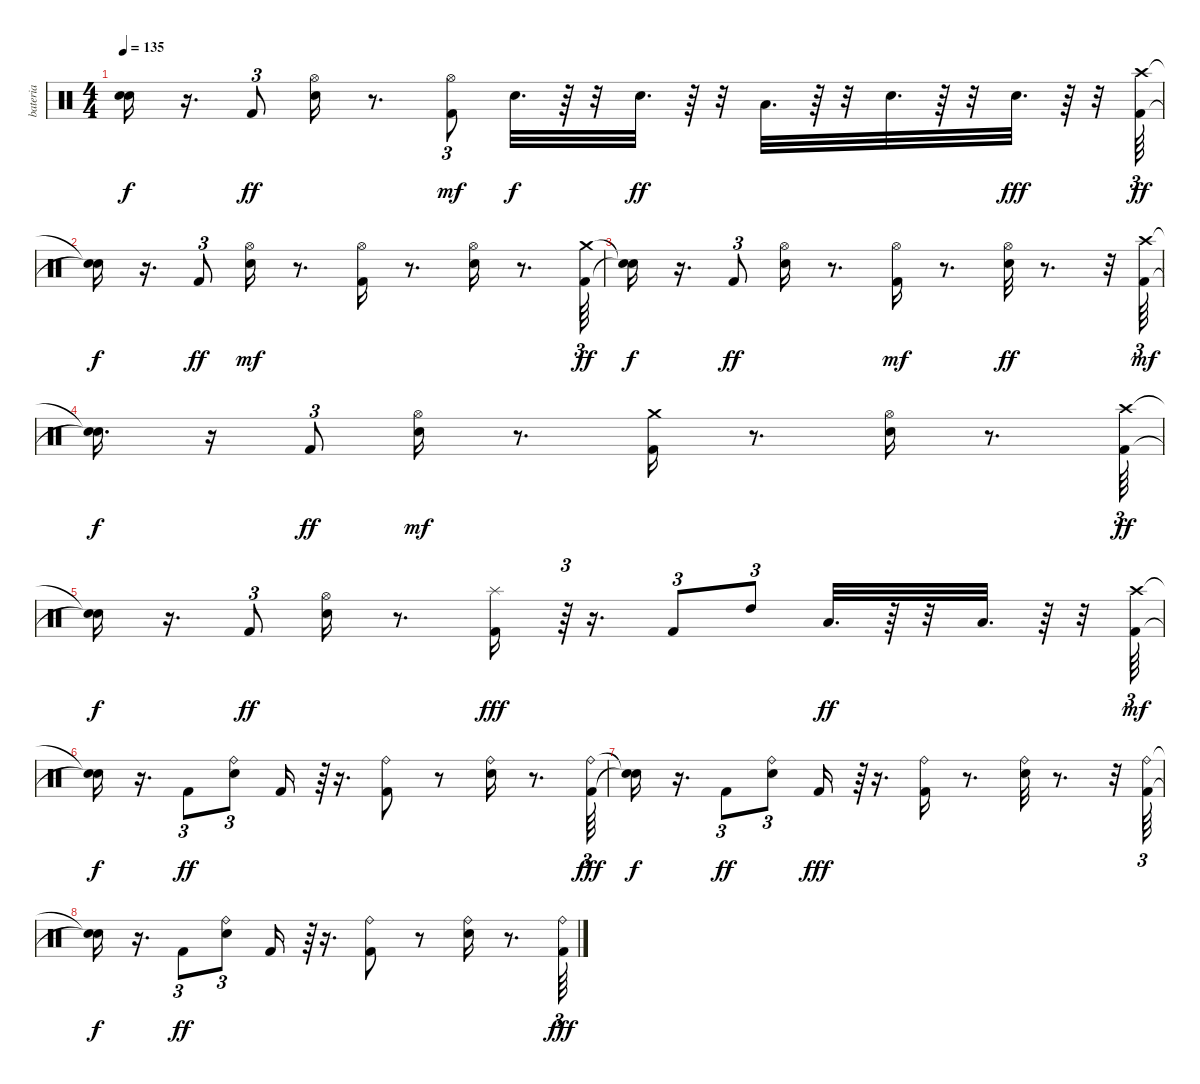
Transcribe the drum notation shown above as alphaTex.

\track ("bateria" "bateria") {instrument percussion}
\staff {score}
\articulation defaults
\ts (4 4)
\tempo 135
\clef neutral
\ks c
("Snare (hit)"{t} "Snare (hit)"{t}).16{dy f} r.16{d} "Kick (hit) 2".8{tu (3 2) dy ff} ("Electric Snare (hit)" "Hi-Hat (open)").16 r.8{d} ("Kick (hit) 2" "Hi-Hat (open)").8{tu (3 2) dy mf} "Electric Snare (hit)".32{d dy f} r.64 r.32 "Electric Snare (hit)".32{d dy ff} r.64 r.32 "Low Floor Tom (hit)".32{d} r.64 r.32 "Electric Snare (hit)".32{d} r.64 r.32 "Electric Snare (hit)".32{d dy fff} r.64 r.32 ("Kick (hit) 2" "Crash high (hit)").64{tu (3 2) dy ff} |
("Snare (hit)"{t} "Snare (hit)"{t}).16{dy f} r.16{d} "Kick (hit) 2".8{tu (3 2) dy ff} ("Electric Snare (hit)" "Hi-Hat (open)").16{dy mf} r.8{d} ("Kick (hit) 2" "Hi-Hat (open)").16 r.8{d} ("Electric Snare (hit)" "Hi-Hat (open)").16 r.8{d} ("Kick (hit) 2" "Crash medium (hit)").64{tu (3 2) dy ff} |
("Snare (hit)"{t} "Snare (hit)"{t}).16{dy f} r.16{d} "Kick (hit) 2".8{tu (3 2) dy ff} ("Electric Snare (hit)" "Hi-Hat (open)").16 r.8{d} ("Kick (hit) 2" "Hi-Hat (open)").16{dy mf} r.8{d} ("Electric Snare (hit)" "Hi-Hat (open)").32{dy ff} r.8{d} r.32 ("Kick (hit) 2" "Crash high (hit)").64{tu (3 2) dy mf} |
("Snare (hit)"{t} "Snare (hit)"{t}).16{d dy f} r.16 "Kick (hit) 2".8{tu (3 2) dy ff} ("Electric Snare (hit)" "Hi-Hat (open)").16{dy mf} r.8{d} ("Kick (hit) 2" "Crash medium (hit)").16 r.8{d} ("Electric Snare (hit)" "Hi-Hat (open)").16 r.8{d} ("Kick (hit) 2" "Crash high (hit)").64{tu (3 2) dy ff} |
("Snare (hit)"{t} "Snare (hit)"{t}).16{dy f} r.16{d} "Kick (hit) 2".8{tu (3 2) dy ff} ("Electric Snare (hit)" "Hi-Hat (open)").16 r.8{d} ("Kick (hit) 2" "Splash (hit)").16{dy fff} r.64{tu (3 2)} r.16{d} "Kick (hit) 2".8{tu (3 2)} "High Tom (hit)".8{tu (3 2)} "Low Tom (hit)".32{d dy ff} r.64 r.32 "Low Floor Tom (hit)".32{d} r.64 r.32 ("Kick (hit) 2" "Crash high (hit)").64{tu (3 2) dy mf} |
("Snare (hit)"{t} "Snare (hit)"{t}).16{dy f} r.16{d} "Kick (hit) 2".8{tu (3 2) dy ff} ("Ride (bell)" "Electric Snare (hit)").8{tu (3 2)} "Kick (hit) 2".16 r.64{tu (3 2)} r.16{d} ("Ride (bell)" "Kick (hit) 2").8 r.8 ("Ride (bell)" "Electric Snare (hit)").16 r.8{d} ("Ride (bell)" "Kick (hit) 2").64{tu (3 2) dy fff} |
("Snare (hit)"{t} "Snare (hit)"{t}).16{dy f} r.16{d} "Kick (hit) 2".8{tu (3 2) dy ff} ("Ride (bell)" "Electric Snare (hit)").8{tu (3 2)} "Kick (hit) 2".16{dy fff} r.64{tu (3 2)} r.16{d} ("Ride (bell)" "Kick (hit) 2").16 r.8{d} ("Ride (bell)" "Electric Snare (hit)").32 r.8{d} r.32 ("Ride (bell)" "Kick (hit) 2").64{tu (3 2)} |
("Snare (hit)"{t} "Snare (hit)"{t}).16{dy f} r.16{d} "Kick (hit) 2".8{tu (3 2) dy ff} ("Ride (bell)" "Electric Snare (hit)").8{tu (3 2)} "Kick (hit) 2".16 r.64{tu (3 2)} r.16{d} ("Ride (bell)" "Kick (hit) 2").8 r.8 ("Ride (bell)" "Electric Snare (hit)").16 r.8{d} ("Ride (bell)" "Kick (hit) 2").64{tu (3 2) dy fff}
